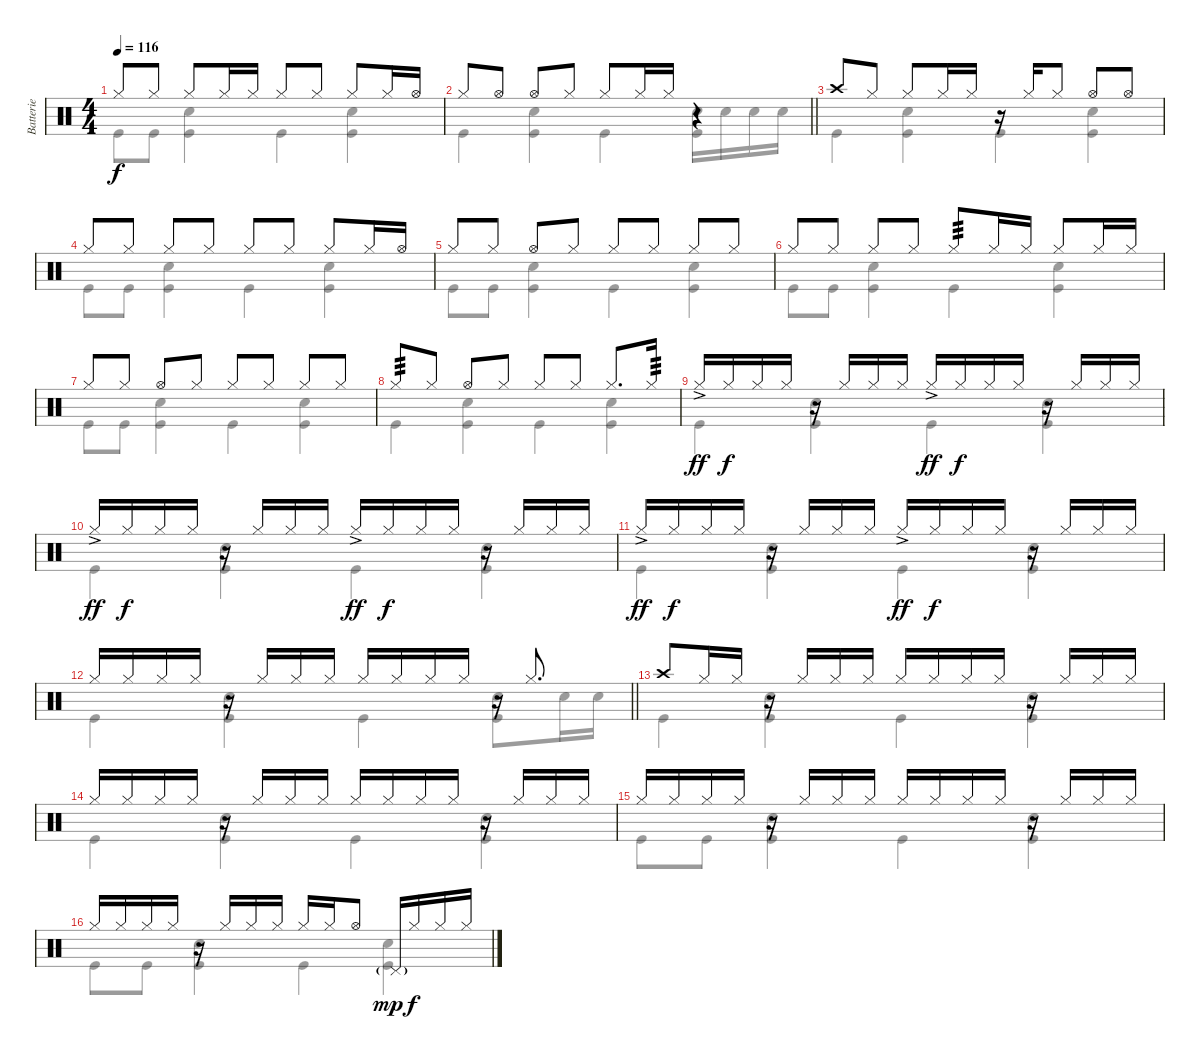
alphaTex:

\track ("Batterie" "Batterie") {instrument percussion}
\staff {score}
\articulation defaults
\voice
\ts (4 4)
\tempo 116
\clef neutral
\ks c "Hi-Hat (closed)".8{dy f} "Hi-Hat (closed)".8 "Hi-Hat (closed)".8 "Hi-Hat (closed)".16 "Hi-Hat (closed)".16 "Hi-Hat (closed)".8 "Hi-Hat (closed)".8 "Hi-Hat (closed)".8 "Hi-Hat (closed)".16 "Hi-Hat (open)".16
|
\barLineRight lightlight "Hi-Hat (closed)".8 "Hi-Hat (open)".8 "Hi-Hat (open)".8 "Hi-Hat (closed)".8 "Hi-Hat (closed)".8 "Hi-Hat (closed)".16 "Hi-Hat (closed)".16
r.4 |
"Crash high (hit)".8 "Hi-Hat (closed)".8 "Hi-Hat (closed)".8 "Hi-Hat (closed)".16 "Hi-Hat (closed)".16 r.16 "Hi-Hat (closed)".16 "Hi-Hat (closed)".8 "Hi-Hat (open)".8 "Hi-Hat (open)".8 |
"Hi-Hat (closed)".8 "Hi-Hat (closed)".8 "Hi-Hat (closed)".8 "Hi-Hat (closed)".8 "Hi-Hat (closed)".8 "Hi-Hat (closed)".8 "Hi-Hat (closed)".8 "Hi-Hat (closed)".16 "Hi-Hat (open)".16 |
"Hi-Hat (closed)".8 "Hi-Hat (closed)".8 "Hi-Hat (open)".8 "Hi-Hat (closed)".8 "Hi-Hat (closed)".8 "Hi-Hat (closed)".8 "Hi-Hat (closed)".8 "Hi-Hat (closed)".8 |
"Hi-Hat (closed)".8 "Hi-Hat (closed)".8 "Hi-Hat (closed)".8 "Hi-Hat (closed)".8 "Hi-Hat (closed)".8{tp 3} "Hi-Hat (closed)".16 "Hi-Hat (closed)".16 "Hi-Hat (closed)".8 "Hi-Hat (closed)".16 "Hi-Hat (closed)".16 |
"Hi-Hat (closed)".8 "Hi-Hat (closed)".8 "Hi-Hat (open)".8 "Hi-Hat (closed)".8 "Hi-Hat (closed)".8 "Hi-Hat (closed)".8 "Hi-Hat (closed)".8 "Hi-Hat (closed)".8 |
"Hi-Hat (closed)".8{tp 3} "Hi-Hat (closed)".8 "Hi-Hat (open)".8 "Hi-Hat (closed)".8 "Hi-Hat (closed)".8 "Hi-Hat (closed)".8 "Hi-Hat (closed)".8{d} "Hi-Hat (closed)".16{tp 3} |
"Hi-Hat (closed)"{ac}.16{dy ff} "Hi-Hat (closed)".16{dy f} "Hi-Hat (closed)".16 "Hi-Hat (closed)".16 r.16 "Hi-Hat (closed)".16 "Hi-Hat (closed)".16 "Hi-Hat (closed)".16 "Hi-Hat (closed)"{ac}.16{dy ff} "Hi-Hat (closed)".16{dy f} "Hi-Hat (closed)".16 "Hi-Hat (closed)".16 r.16 "Hi-Hat (closed)".16 "Hi-Hat (closed)".16 "Hi-Hat (closed)".16 |
"Hi-Hat (closed)"{ac}.16{dy ff} "Hi-Hat (closed)".16{dy f} "Hi-Hat (closed)".16 "Hi-Hat (closed)".16 r.16 "Hi-Hat (closed)".16 "Hi-Hat (closed)".16 "Hi-Hat (closed)".16 "Hi-Hat (closed)"{ac}.16{dy ff} "Hi-Hat (closed)".16{dy f} "Hi-Hat (closed)".16 "Hi-Hat (closed)".16 r.16 "Hi-Hat (closed)".16 "Hi-Hat (closed)".16 "Hi-Hat (closed)".16 |
"Hi-Hat (closed)"{ac}.16{dy ff} "Hi-Hat (closed)".16{dy f} "Hi-Hat (closed)".16 "Hi-Hat (closed)".16 r.16 "Hi-Hat (closed)".16 "Hi-Hat (closed)".16 "Hi-Hat (closed)".16 "Hi-Hat (closed)"{ac}.16{dy ff} "Hi-Hat (closed)".16{dy f} "Hi-Hat (closed)".16 "Hi-Hat (closed)".16 r.16 "Hi-Hat (closed)".16 "Hi-Hat (closed)".16 "Hi-Hat (closed)".16 |
\barLineRight lightlight "Hi-Hat (closed)".16 "Hi-Hat (closed)".16 "Hi-Hat (closed)".16 "Hi-Hat (closed)".16
r.16 "Hi-Hat (closed)".16 "Hi-Hat (closed)".16 "Hi-Hat (closed)".16 "Hi-Hat (closed)".16 "Hi-Hat (closed)".16 "Hi-Hat (closed)".16 "Hi-Hat (closed)".16 r.16 "Hi-Hat (closed)".8{d} |
"Crash high (hit)".8 "Hi-Hat (closed)".16 "Hi-Hat (closed)".16 r.16 "Hi-Hat (closed)".16 "Hi-Hat (closed)".16 "Hi-Hat (closed)".16 "Hi-Hat (closed)".16 "Hi-Hat (closed)".16 "Hi-Hat (closed)".16 "Hi-Hat (closed)".16 r.16 "Hi-Hat (closed)".16 "Hi-Hat (closed)".16 "Hi-Hat (closed)".16 |
"Hi-Hat (closed)".16 "Hi-Hat (closed)".16 "Hi-Hat (closed)".16 "Hi-Hat (closed)".16 r.16 "Hi-Hat (closed)".16 "Hi-Hat (closed)".16 "Hi-Hat (closed)".16 "Hi-Hat (closed)".16 "Hi-Hat (closed)".16 "Hi-Hat (closed)".16 "Hi-Hat (closed)".16 r.16 "Hi-Hat (closed)".16 "Hi-Hat (closed)".16 "Hi-Hat (closed)".16 |
"Hi-Hat (closed)".16 "Hi-Hat (closed)".16 "Hi-Hat (closed)".16 "Hi-Hat (closed)".16 r.16 "Hi-Hat (closed)".16 "Hi-Hat (closed)".16 "Hi-Hat (closed)".16 "Hi-Hat (closed)".16 "Hi-Hat (closed)".16 "Hi-Hat (closed)".16 "Hi-Hat (closed)".16 r.16 "Hi-Hat (closed)".16 "Hi-Hat (closed)".16 "Hi-Hat (closed)".16 |
"Hi-Hat (closed)".16 "Hi-Hat (closed)".16 "Hi-Hat (closed)".16 "Hi-Hat (closed)".16 r.16 "Hi-Hat (closed)".16 "Hi-Hat (closed)".16 "Hi-Hat (closed)".16 "Hi-Hat (closed)".16 "Hi-Hat (closed)".16 "Hi-Hat (open)".8 "Pedal Hi-Hat (hit)"{g}.16{dy mp} "Hi-Hat (closed)".16{dy f} "Hi-Hat (closed)".16 "Hi-Hat (closed)".16
\voice
\clef neutral
\ottava regular
\simile none
\ks c "Kick (hit)".8{dy f} "Kick (hit)".8
("Snare (hit) 2" "Kick (hit)").4 "Kick (hit)".4 ("Snare (hit) 2" "Kick (hit)").4 |
\barLineRight lightlight "Kick (hit)".4
("Snare (hit) 2" "Kick (hit)").4 "Kick (hit)".4 ("Snare (hit) 2" "Kick (hit)").16 "Snare (hit) 2".16 "Snare (hit) 2".16 "Snare (hit) 2".16 |
"Kick (hit)".4 ("Snare (hit) 2" "Kick (hit)").4 "Kick (hit)".4 ("Snare (hit) 2" "Kick (hit)").4 |
"Kick (hit)".8 "Kick (hit)".8 ("Snare (hit) 2" "Kick (hit)").4 "Kick (hit)".4 ("Snare (hit) 2" "Kick (hit)").4 |
"Kick (hit)".8 "Kick (hit)".8 ("Snare (hit) 2" "Kick (hit)").4 "Kick (hit)".4 ("Snare (hit) 2" "Kick (hit)").4 |
"Kick (hit)".8 "Kick (hit)".8 ("Snare (hit) 2" "Kick (hit)").4 "Kick (hit)".4 ("Snare (hit) 2" "Kick (hit)").4 |
"Kick (hit)".8 "Kick (hit)".8 ("Snare (hit) 2" "Kick (hit)").4 "Kick (hit)".4 ("Snare (hit) 2" "Kick (hit)").4 |
"Kick (hit)".4 ("Snare (hit) 2" "Kick (hit)").4 "Kick (hit)".4 ("Snare (hit) 2" "Kick (hit)").4 |
"Kick (hit)".4 ("Snare (hit) 2" "Kick (hit)").4 "Kick (hit)".4 ("Snare (hit) 2" "Kick (hit)").4 |
"Kick (hit)".4 ("Snare (hit) 2" "Kick (hit)").4 "Kick (hit)".4 ("Snare (hit) 2" "Kick (hit)").4 |
"Kick (hit)".4 ("Snare (hit) 2" "Kick (hit)").4 "Kick (hit)".4 ("Snare (hit) 2" "Kick (hit)").4 |
\barLineRight lightlight "Kick (hit)".4
("Snare (hit) 2" "Kick (hit)").4 "Kick (hit)".4 ("Snare (hit) 2" "Kick (hit)").8 "Snare (hit) 2".16 "Snare (hit) 2".16 |
"Kick (hit)".4 ("Snare (hit) 2" "Kick (hit)").4 "Kick (hit)".4 ("Snare (hit) 2" "Kick (hit)").4 |
"Kick (hit)".4 ("Snare (hit) 2" "Kick (hit)").4 "Kick (hit)".4 ("Snare (hit) 2" "Kick (hit)").4 |
"Kick (hit)".8 "Kick (hit)".8 ("Snare (hit) 2" "Kick (hit)").4 "Kick (hit)".4 ("Snare (hit) 2" "Kick (hit)").4 |
"Kick (hit)".8 "Kick (hit)".8 ("Snare (hit) 2" "Kick (hit)").4 "Kick (hit)".4 ("Snare (hit) 2" "Kick (hit)").4
